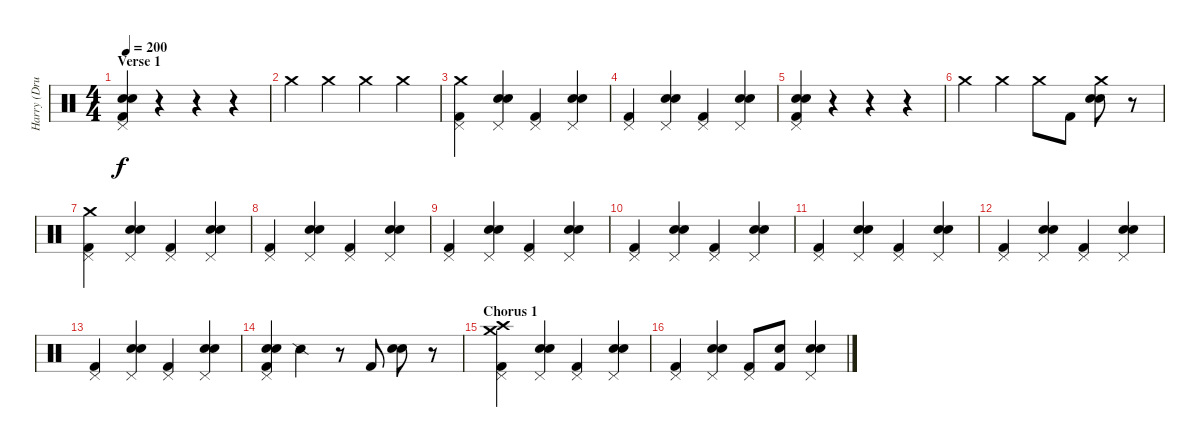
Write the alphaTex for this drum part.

\track ("Harry (Drums)" "Harry (Dru") {instrument percussion}
\staff {score}
\articulation defaults
\ts (4 4)
\section ("" "Verse 1")
\tempo 200
\clef neutral
\ks c
("Kick (hit) 2" "Electric Snare (hit)" "Snare (hit) 2" "Pedal Hi-Hat (hit)").4{dy f} r.4 r.4 r.4 |
"Crash medium (hit)".4 "Crash medium (hit)".4 "Crash medium (hit)".4 "Crash medium (hit)".4 |
("Kick (hit) 2" "Pedal Hi-Hat (hit)" "Crash medium (hit)").4 ("Snare (hit) 2" "Electric Snare (hit)" "Pedal Hi-Hat (hit)").4 ("Kick (hit) 2" "Pedal Hi-Hat (hit)").4 ("Snare (hit) 2" "Electric Snare (hit)" "Pedal Hi-Hat (hit)").4 |
("Kick (hit) 2" "Pedal Hi-Hat (hit)").4 ("Snare (hit) 2" "Electric Snare (hit)" "Pedal Hi-Hat (hit)").4 ("Kick (hit) 2" "Pedal Hi-Hat (hit)").4 ("Snare (hit) 2" "Electric Snare (hit)" "Pedal Hi-Hat (hit)").4 |
("Kick (hit) 2" "Electric Snare (hit)" "Snare (hit) 2" "Pedal Hi-Hat (hit)").4 r.4 r.4 r.4 |
"Crash medium (hit)".4 "Crash medium (hit)".4 "Crash medium (hit)".8 "Kick (hit) 2".8 ("Crash medium (hit)" "Electric Snare (hit)" "Snare (hit) 2").8 r.8 |
("Kick (hit) 2" "Pedal Hi-Hat (hit)" "Crash medium (hit)").4 ("Snare (hit) 2" "Electric Snare (hit)" "Pedal Hi-Hat (hit)").4 ("Kick (hit) 2" "Pedal Hi-Hat (hit)").4 ("Snare (hit) 2" "Electric Snare (hit)" "Pedal Hi-Hat (hit)").4 |
("Kick (hit) 2" "Pedal Hi-Hat (hit)").4 ("Snare (hit) 2" "Electric Snare (hit)" "Pedal Hi-Hat (hit)").4 ("Kick (hit) 2" "Pedal Hi-Hat (hit)").4 ("Snare (hit) 2" "Electric Snare (hit)" "Pedal Hi-Hat (hit)").4 |
("Kick (hit) 2" "Pedal Hi-Hat (hit)").4 ("Snare (hit) 2" "Electric Snare (hit)" "Pedal Hi-Hat (hit)").4 ("Kick (hit) 2" "Pedal Hi-Hat (hit)").4 ("Snare (hit) 2" "Electric Snare (hit)" "Pedal Hi-Hat (hit)").4 |
("Kick (hit) 2" "Pedal Hi-Hat (hit)").4 ("Snare (hit) 2" "Electric Snare (hit)" "Pedal Hi-Hat (hit)").4 ("Kick (hit) 2" "Pedal Hi-Hat (hit)").4 ("Snare (hit) 2" "Electric Snare (hit)" "Pedal Hi-Hat (hit)").4 |
("Kick (hit) 2" "Pedal Hi-Hat (hit)").4 ("Snare (hit) 2" "Electric Snare (hit)" "Pedal Hi-Hat (hit)").4 ("Kick (hit) 2" "Pedal Hi-Hat (hit)").4 ("Snare (hit) 2" "Electric Snare (hit)" "Pedal Hi-Hat (hit)").4 |
("Kick (hit) 2" "Pedal Hi-Hat (hit)").4 ("Snare (hit) 2" "Electric Snare (hit)" "Pedal Hi-Hat (hit)").4 ("Kick (hit) 2" "Pedal Hi-Hat (hit)").4 ("Snare (hit) 2" "Electric Snare (hit)" "Pedal Hi-Hat (hit)").4 |
("Kick (hit) 2" "Pedal Hi-Hat (hit)").4 ("Snare (hit) 2" "Electric Snare (hit)" "Pedal Hi-Hat (hit)").4 ("Kick (hit) 2" "Pedal Hi-Hat (hit)").4 ("Snare (hit) 2" "Electric Snare (hit)" "Pedal Hi-Hat (hit)").4 |
("Kick (hit) 2" "Electric Snare (hit)" "Snare (hit) 2" "Pedal Hi-Hat (hit)").4 "Snare (side stick) 2".4 r.8 "Kick (hit) 2".8 ("Snare (hit) 2" "Electric Snare (hit)").8 r.8 |
\section ("" "Chorus 1")
("Kick (hit) 2" "Pedal Hi-Hat (hit)" "Crash medium (hit)" "Crash high (hit)").4 ("Snare (hit) 2" "Electric Snare (hit)" "Pedal Hi-Hat (hit)").4 ("Kick (hit) 2" "Pedal Hi-Hat (hit)").4 ("Snare (hit) 2" "Electric Snare (hit)" "Pedal Hi-Hat (hit)").4 |
("Kick (hit) 2" "Pedal Hi-Hat (hit)").4 ("Snare (hit) 2" "Electric Snare (hit)" "Pedal Hi-Hat (hit)").4 ("Kick (hit) 2" "Pedal Hi-Hat (hit)").8 ("Kick (hit) 2" "Electric Snare (hit)").8 ("Snare (hit) 2" "Electric Snare (hit)" "Pedal Hi-Hat (hit)").4
